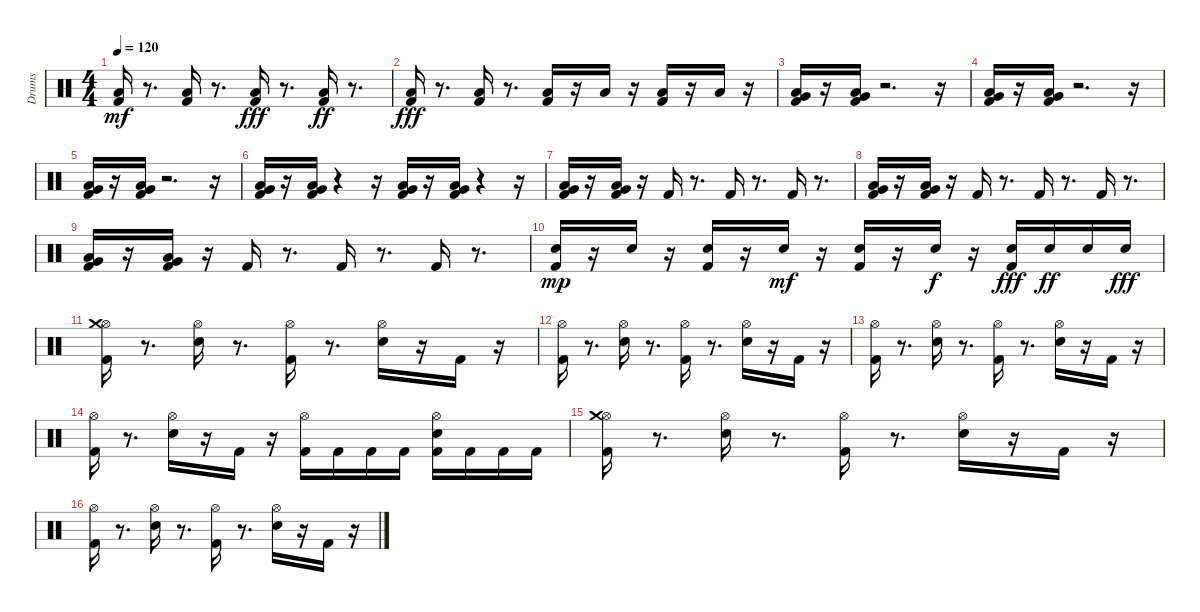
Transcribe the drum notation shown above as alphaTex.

\track ("Drums" "Drums") {instrument percussion}
\staff {score}
\articulation defaults
\ts (4 4)
\tempo 120
\clef neutral
\ks c
("Kick (hit) 2" "Low Floor Tom (hit)").16{dy mf} r.8{d} ("Kick (hit) 2" "Low Floor Tom (hit)").16 r.8{d} ("Kick (hit) 2" "Low Floor Tom (hit)").16{dy fff} r.8{d} ("Kick (hit) 2" "Low Floor Tom (hit)").16{dy ff} r.8{d} |
("Kick (hit) 2" "Low Floor Tom (hit)").16{dy fff} r.8{d} ("Kick (hit) 2" "Low Floor Tom (hit)").16 r.8{d} ("Kick (hit) 2" "Low Floor Tom (hit)").16 r.16 "Low Floor Tom (hit)".16 r.16 ("Kick (hit) 2" "Low Floor Tom (hit)").16 r.16 "Low Floor Tom (hit)".16 r.16 |
("Kick (hit) 2" "Low Floor Tom (hit)" "Very Low Tom (hit)").16 r.16 ("Kick (hit) 2" "Low Floor Tom (hit)" "Very Low Tom (hit)").16 r.2{d} r.16 |
("Kick (hit) 2" "Low Floor Tom (hit)" "Very Low Tom (hit)").16 r.16 ("Kick (hit) 2" "Low Floor Tom (hit)" "Very Low Tom (hit)").16 r.2{d} r.16 |
("Kick (hit) 2" "Low Floor Tom (hit)" "Very Low Tom (hit)").16 r.16 ("Kick (hit) 2" "Low Floor Tom (hit)" "Very Low Tom (hit)").16 r.2{d} r.16 |
("Kick (hit) 2" "Low Floor Tom (hit)" "Very Low Tom (hit)").16 r.16 ("Kick (hit) 2" "Low Floor Tom (hit)" "Very Low Tom (hit)").16 r.4 r.16 ("Kick (hit) 2" "Low Floor Tom (hit)" "Very Low Tom (hit)").16 r.16 ("Kick (hit) 2" "Low Floor Tom (hit)" "Very Low Tom (hit)").16 r.4 r.16 |
("Kick (hit) 2" "Low Floor Tom (hit)" "Very Low Tom (hit)").16 r.16 ("Kick (hit) 2" "Low Floor Tom (hit)" "Very Low Tom (hit)").16 r.16 "Kick (hit) 2".16 r.8{d} "Kick (hit) 2".16 r.8{d} "Kick (hit) 2".16 r.8{d} |
("Kick (hit) 2" "Low Floor Tom (hit)" "Very Low Tom (hit)").16 r.16 ("Kick (hit) 2" "Low Floor Tom (hit)" "Very Low Tom (hit)").16 r.16 "Kick (hit) 2".16 r.8{d} "Kick (hit) 2".16 r.8{d} "Kick (hit) 2".16 r.8{d} |
("Kick (hit) 2" "Low Floor Tom (hit)" "Very Low Tom (hit)").16 r.16 ("Kick (hit) 2" "Low Floor Tom (hit)" "Very Low Tom (hit)").16 r.16 "Kick (hit) 2".16 r.8{d} "Kick (hit) 2".16 r.8{d} "Kick (hit) 2".16 r.8{d} |
("Kick (hit) 2" "Electric Snare (hit)").16{dy mp} r.16 "Electric Snare (hit)".16 r.16 ("Kick (hit) 2" "Electric Snare (hit)").16 r.16 "Electric Snare (hit)".16{dy mf} r.16 ("Kick (hit) 2" "Electric Snare (hit)").16 r.16 "Electric Snare (hit)".16{dy f} r.16 ("Kick (hit) 2" "Electric Snare (hit)").16{dy fff} "Electric Snare (hit)".16{dy ff} "Electric Snare (hit)".16 "Electric Snare (hit)".16{dy fff} |
("Kick (hit) 2" "Hi-Hat (open)" "Crash medium (hit)").16 r.8{d} ("Electric Snare (hit)" "Hi-Hat (open)").16 r.8{d} ("Kick (hit) 2" "Hi-Hat (open)").16 r.8{d} ("Electric Snare (hit)" "Hi-Hat (open)").16 r.16 "Kick (hit) 2".16 r.16 |
("Kick (hit) 2" "Hi-Hat (open)").16 r.8{d} ("Electric Snare (hit)" "Hi-Hat (open)").16 r.8{d} ("Kick (hit) 2" "Hi-Hat (open)").16 r.8{d} ("Electric Snare (hit)" "Hi-Hat (open)").16 r.16 "Kick (hit) 2".16 r.16 |
("Kick (hit) 2" "Hi-Hat (open)").16 r.8{d} ("Electric Snare (hit)" "Hi-Hat (open)").16 r.8{d} ("Kick (hit) 2" "Hi-Hat (open)").16 r.8{d} ("Electric Snare (hit)" "Hi-Hat (open)").16 r.16 "Kick (hit) 2".16 r.16 |
("Kick (hit) 2" "Hi-Hat (open)").16 r.8{d} ("Electric Snare (hit)" "Hi-Hat (open)").16 r.16 "Kick (hit) 2".16 r.16 ("Kick (hit) 2" "Hi-Hat (open)").16 "Kick (hit) 2".16 "Kick (hit) 2".16 "Kick (hit) 2".16 ("Electric Snare (hit)" "Kick (hit) 2" "Hi-Hat (open)").16 "Kick (hit) 2".16 "Kick (hit) 2".16 "Kick (hit) 2".16 |
("Kick (hit) 2" "Hi-Hat (open)" "Crash medium (hit)").16 r.8{d} ("Electric Snare (hit)" "Hi-Hat (open)").16 r.8{d} ("Kick (hit) 2" "Hi-Hat (open)").16 r.8{d} ("Electric Snare (hit)" "Hi-Hat (open)").16 r.16 "Kick (hit) 2".16 r.16 |
("Kick (hit) 2" "Hi-Hat (open)").16 r.8{d} ("Electric Snare (hit)" "Hi-Hat (open)").16 r.8{d} ("Kick (hit) 2" "Hi-Hat (open)").16 r.8{d} ("Electric Snare (hit)" "Hi-Hat (open)").16 r.16 "Kick (hit) 2".16 r.16
